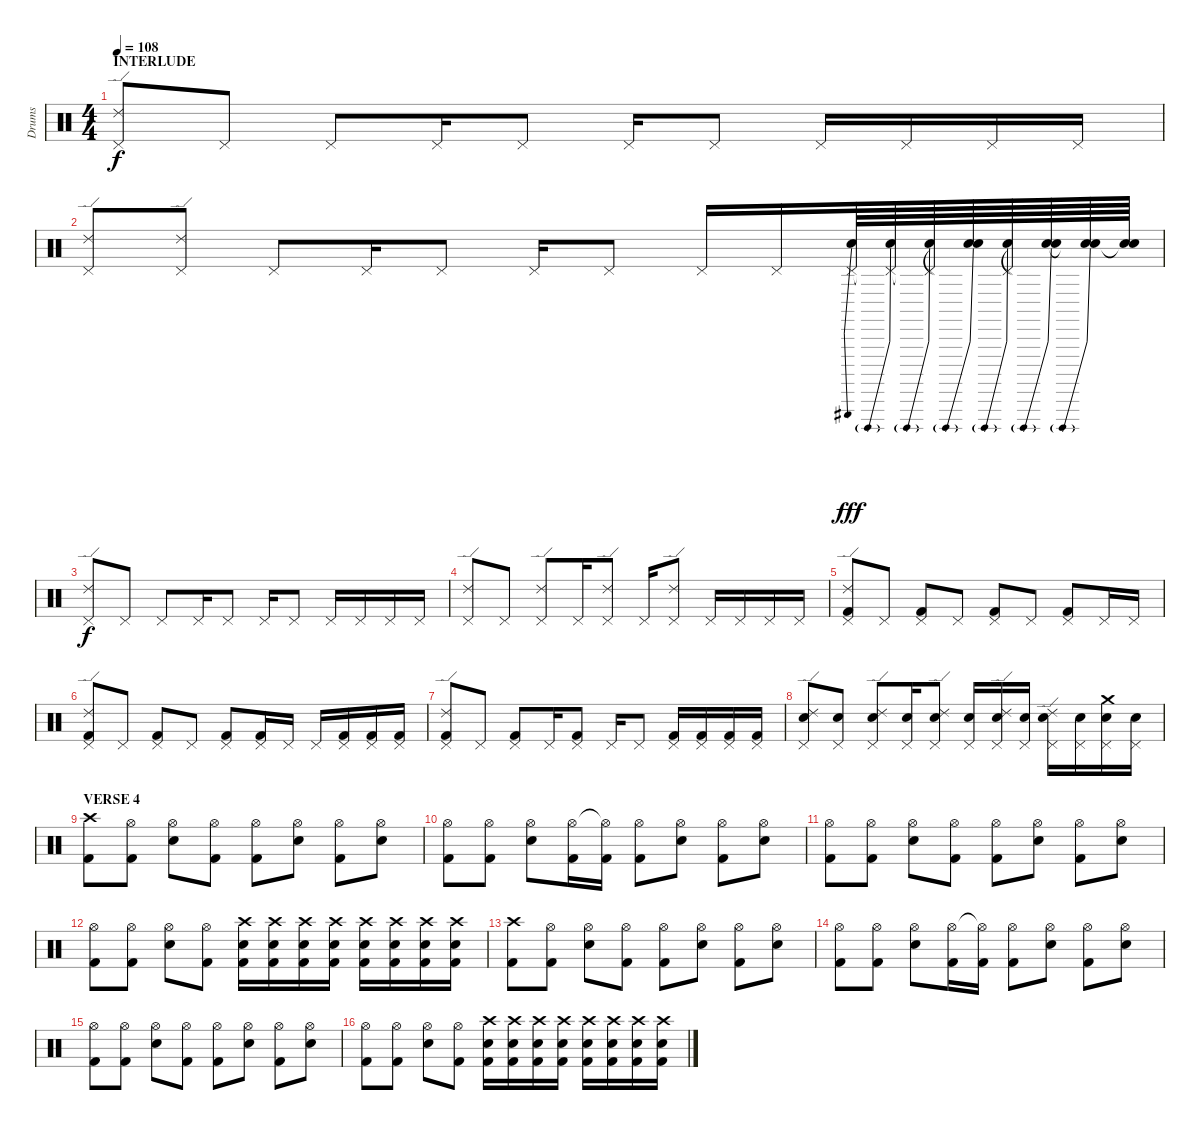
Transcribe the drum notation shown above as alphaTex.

\track ("Drums" "Drums") {instrument percussion}
\staff {score}
\articulation defaults
\ts (4 4)
\section ("" "INTERLUDE")
\tempo 108
\clef neutral
\ks c
("Ride (edge) 2" "Pedal Hi-Hat (hit)").8{dy f} "Pedal Hi-Hat (hit)".8 "Pedal Hi-Hat (hit)".8 "Pedal Hi-Hat (hit)".16 "Pedal Hi-Hat (hit)".8 "Pedal Hi-Hat (hit)".16 "Pedal Hi-Hat (hit)".8 "Pedal Hi-Hat (hit)".16 "Pedal Hi-Hat (hit)".16 "Pedal Hi-Hat (hit)".16 "Pedal Hi-Hat (hit)".16 |
("Ride (edge) 2" "Pedal Hi-Hat (hit)").8 ("Ride (edge) 2" "Pedal Hi-Hat (hit)").8 "Pedal Hi-Hat (hit)".8 "Pedal Hi-Hat (hit)".16 "Pedal Hi-Hat (hit)".8 "Pedal Hi-Hat (hit)".16 "Pedal Hi-Hat (hit)".8 "Pedal Hi-Hat (hit)".16 "Pedal Hi-Hat (hit)".16 ("Metronome (bell)"{be (bend 0 0 60 12)} "Pedal Hi-Hat (hit)").64{dy fff} ("Metronome (bell)"{be (prebend 0 12 60 12)} "Pedal Hi-Hat (hit)"{t}).64 ("Metronome (bell)"{be (prebend 0 12 60 12)} "Pedal Hi-Hat (hit)"{t}).64 ("Metronome (bell)"{be (prebend 0 12 60 12)} "Snare (hit)"{t}).64 ("Metronome (bell)"{be (prebend 0 8 60 8)} "Pedal Hi-Hat (hit)").64 ("Metronome (bell)"{be (prebend 0 8 60 8)} "Snare (hit)"{t}).64 ("Metronome (bell)"{be (prebend 0 4 60 4)} "Snare (hit)"{t}).64 ("Metronome (bell)"{be (custom 0 4 20 4 40 0 60 0)} "Snare (hit)"{t}).64 |
("Ride (edge) 2" "Pedal Hi-Hat (hit)").8{dy f} "Pedal Hi-Hat (hit)".8 "Pedal Hi-Hat (hit)".8 "Pedal Hi-Hat (hit)".16 "Pedal Hi-Hat (hit)".8 "Pedal Hi-Hat (hit)".16 "Pedal Hi-Hat (hit)".8 "Pedal Hi-Hat (hit)".16 "Pedal Hi-Hat (hit)".16 "Pedal Hi-Hat (hit)".16 "Pedal Hi-Hat (hit)".16 |
("Ride (edge) 2" "Pedal Hi-Hat (hit)").8 "Pedal Hi-Hat (hit)".8 ("Ride (edge) 2" "Pedal Hi-Hat (hit)").8 "Pedal Hi-Hat (hit)".16 ("Ride (edge) 2" "Pedal Hi-Hat (hit)").8 "Pedal Hi-Hat (hit)".16 ("Ride (edge) 2" "Pedal Hi-Hat (hit)").8 "Pedal Hi-Hat (hit)".16 "Pedal Hi-Hat (hit)".16 "Pedal Hi-Hat (hit)".16 "Pedal Hi-Hat (hit)".16 |
("Ride (edge) 2" "Kick (hit) 2" "Pedal Hi-Hat (hit)").8 "Pedal Hi-Hat (hit)".8 ("Kick (hit) 2" "Pedal Hi-Hat (hit)").8 "Pedal Hi-Hat (hit)".8 ("Kick (hit) 2" "Pedal Hi-Hat (hit)").8 "Pedal Hi-Hat (hit)".8 ("Kick (hit) 2" "Pedal Hi-Hat (hit)").8 "Pedal Hi-Hat (hit)".16 "Pedal Hi-Hat (hit)".16 |
("Ride (edge) 2" "Kick (hit) 2" "Pedal Hi-Hat (hit)").8 "Pedal Hi-Hat (hit)".8 ("Kick (hit) 2" "Pedal Hi-Hat (hit)").8 "Pedal Hi-Hat (hit)".8 ("Kick (hit) 2" "Pedal Hi-Hat (hit)").8 ("Kick (hit) 2" "Pedal Hi-Hat (hit)").16 "Pedal Hi-Hat (hit)".16 "Pedal Hi-Hat (hit)".16 ("Kick (hit) 2" "Pedal Hi-Hat (hit)").16 ("Kick (hit) 2" "Pedal Hi-Hat (hit)").16 ("Kick (hit) 2" "Pedal Hi-Hat (hit)").16 |
("Ride (edge) 2" "Kick (hit) 2" "Pedal Hi-Hat (hit)").8 "Pedal Hi-Hat (hit)".8 ("Kick (hit) 2" "Pedal Hi-Hat (hit)").8 "Pedal Hi-Hat (hit)".16 ("Kick (hit) 2" "Pedal Hi-Hat (hit)").8 "Pedal Hi-Hat (hit)".16 "Pedal Hi-Hat (hit)".8 ("Kick (hit) 2" "Pedal Hi-Hat (hit)").16 ("Kick (hit) 2" "Pedal Hi-Hat (hit)").16 ("Kick (hit) 2" "Pedal Hi-Hat (hit)").16 ("Kick (hit) 2" "Pedal Hi-Hat (hit)").16 |
("Ride (edge) 2" "Electric Snare (hit)" "Pedal Hi-Hat (hit)").8 ("Electric Snare (hit)" "Pedal Hi-Hat (hit)").8 ("Ride (edge) 2" "Electric Snare (hit)" "Pedal Hi-Hat (hit)").8 ("Electric Snare (hit)" "Pedal Hi-Hat (hit)").16 ("Ride (edge) 2" "Electric Snare (hit)" "Pedal Hi-Hat (hit)").8 ("Electric Snare (hit)" "Pedal Hi-Hat (hit)").16 ("Ride (edge) 2" "Electric Snare (hit)" "Pedal Hi-Hat (hit)").16 ("Electric Snare (hit)" "Pedal Hi-Hat (hit)").16 ("Ride (edge) 2" "Electric Snare (hit)" "Pedal Hi-Hat (hit)").16 ("Electric Snare (hit)" "Pedal Hi-Hat (hit)").16 ("Crash medium (hit)" "Electric Snare (hit)" "Pedal Hi-Hat (hit)").16 ("Electric Snare (hit)" "Pedal Hi-Hat (hit)").16 |
\section ("" "VERSE 4")
("Crash high (hit)" "Kick (hit) 2").8 ("Hi-Hat (open)" "Kick (hit) 2").8 ("Hi-Hat (open)" "Electric Snare (hit)").8 ("Hi-Hat (open)" "Kick (hit) 2").8 ("Hi-Hat (open)" "Kick (hit) 2").8 ("Hi-Hat (open)" "Electric Snare (hit)").8 ("Hi-Hat (open)" "Kick (hit) 2").8 ("Hi-Hat (open)" "Electric Snare (hit)").8 |
("Hi-Hat (open)" "Kick (hit) 2").8 ("Hi-Hat (open)" "Kick (hit) 2").8 ("Hi-Hat (open)" "Electric Snare (hit)").8 ("Hi-Hat (open)" "Kick (hit) 2").16 ("Hi-Hat (open)"{t} "Kick (hit) 2").16 ("Hi-Hat (open)" "Kick (hit) 2").8 ("Hi-Hat (open)" "Electric Snare (hit)").8 ("Hi-Hat (open)" "Kick (hit) 2").8 ("Hi-Hat (open)" "Electric Snare (hit)").8 |
("Hi-Hat (open)" "Kick (hit) 2").8 ("Hi-Hat (open)" "Kick (hit) 2").8 ("Hi-Hat (open)" "Electric Snare (hit)").8 ("Hi-Hat (open)" "Kick (hit) 2").8 ("Hi-Hat (open)" "Kick (hit) 2").8 ("Hi-Hat (open)" "Electric Snare (hit)").8 ("Hi-Hat (open)" "Kick (hit) 2").8 ("Hi-Hat (open)" "Electric Snare (hit)").8 |
("Hi-Hat (open)" "Kick (hit) 2").8 ("Hi-Hat (open)" "Kick (hit) 2").8 ("Hi-Hat (open)" "Electric Snare (hit)").8 ("Hi-Hat (open)" "Kick (hit) 2").8 ("Crash high (hit)" "Kick (hit) 2" "Electric Snare (hit)").16 ("Crash high (hit)" "Kick (hit) 2" "Electric Snare (hit)").16 ("Crash high (hit)" "Kick (hit) 2" "Electric Snare (hit)").16 ("Crash high (hit)" "Kick (hit) 2" "Electric Snare (hit)").16 ("Crash high (hit)" "Kick (hit) 2" "Electric Snare (hit)").16 ("Crash high (hit)" "Kick (hit) 2" "Electric Snare (hit)").16 ("Crash high (hit)" "Kick (hit) 2" "Electric Snare (hit)").16 ("Crash high (hit)" "Kick (hit) 2" "Electric Snare (hit)").16 |
("Crash high (hit)" "Kick (hit) 2").8 ("Hi-Hat (open)" "Kick (hit) 2").8 ("Hi-Hat (open)" "Electric Snare (hit)").8 ("Hi-Hat (open)" "Kick (hit) 2").8 ("Hi-Hat (open)" "Kick (hit) 2").8 ("Hi-Hat (open)" "Electric Snare (hit)").8 ("Hi-Hat (open)" "Kick (hit) 2").8 ("Hi-Hat (open)" "Electric Snare (hit)").8 |
("Hi-Hat (open)" "Kick (hit) 2").8 ("Hi-Hat (open)" "Kick (hit) 2").8 ("Hi-Hat (open)" "Electric Snare (hit)").8 ("Hi-Hat (open)" "Kick (hit) 2").16 ("Hi-Hat (open)"{t} "Kick (hit) 2").16 ("Hi-Hat (open)" "Kick (hit) 2").8 ("Hi-Hat (open)" "Electric Snare (hit)").8 ("Hi-Hat (open)" "Kick (hit) 2").8 ("Hi-Hat (open)" "Electric Snare (hit)").8 |
("Hi-Hat (open)" "Kick (hit) 2").8 ("Hi-Hat (open)" "Kick (hit) 2").8 ("Hi-Hat (open)" "Electric Snare (hit)").8 ("Hi-Hat (open)" "Kick (hit) 2").8 ("Hi-Hat (open)" "Kick (hit) 2").8 ("Hi-Hat (open)" "Electric Snare (hit)").8 ("Hi-Hat (open)" "Kick (hit) 2").8 ("Hi-Hat (open)" "Electric Snare (hit)").8 |
("Hi-Hat (open)" "Kick (hit) 2").8 ("Hi-Hat (open)" "Kick (hit) 2").8 ("Hi-Hat (open)" "Electric Snare (hit)").8 ("Hi-Hat (open)" "Kick (hit) 2").8 ("Crash high (hit)" "Kick (hit) 2" "Electric Snare (hit)").16 ("Crash high (hit)" "Kick (hit) 2" "Electric Snare (hit)").16 ("Crash high (hit)" "Kick (hit) 2" "Electric Snare (hit)").16 ("Crash high (hit)" "Kick (hit) 2" "Electric Snare (hit)").16 ("Crash high (hit)" "Kick (hit) 2" "Electric Snare (hit)").16 ("Crash high (hit)" "Kick (hit) 2" "Electric Snare (hit)").16 ("Crash high (hit)" "Kick (hit) 2" "Electric Snare (hit)").16 ("Crash high (hit)" "Kick (hit) 2" "Electric Snare (hit)").16
